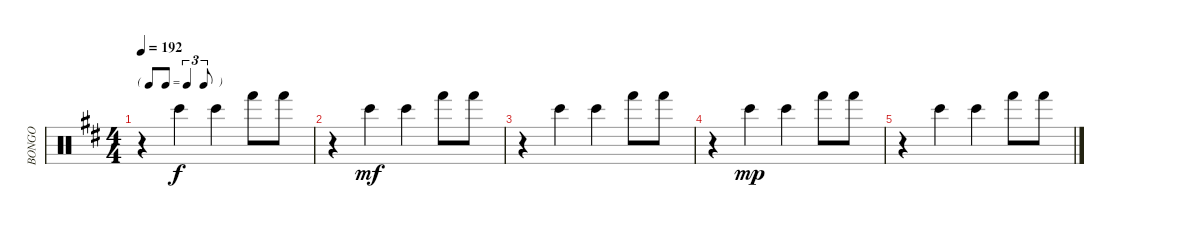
\track ("BONGO" "BONGO") {instrument percussion}
\staff {score}
\articulation defaults
\ts (4 4)
\tf triplet8th
\tempo 192
\clef neutral
\ks d
r.4{dy f} "Bongo High (hit)".4 "Bongo High (hit)".4 "Hand (hit)".8 "Hand (hit)".8 |
r.4 "Bongo High (hit)".4{dy mf} "Bongo High (hit)".4 "Hand (hit)".8 "Hand (hit)".8 |
r.4 "Bongo High (hit)".4 "Bongo High (hit)".4 "Hand (hit)".8 "Hand (hit)".8 |
r.4 "Bongo High (hit)".4{dy mp} "Bongo High (hit)".4 "Hand (hit)".8 "Hand (hit)".8 |
r.4 "Bongo High (hit)".4 "Bongo High (hit)".4 "Hand (hit)".8 "Hand (hit)".8
